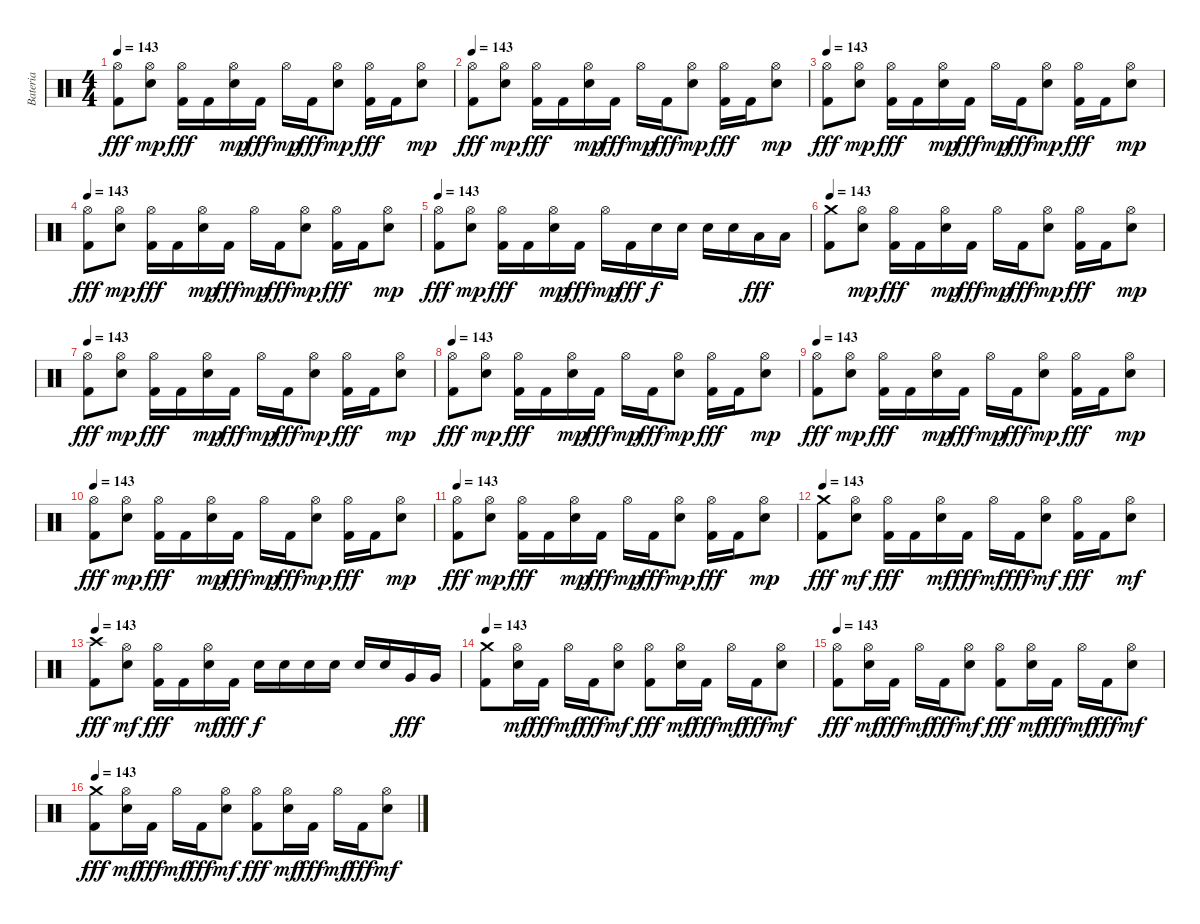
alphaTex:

\track ("Bateria" "Bateria") {instrument percussion}
\staff {score}
\articulation defaults
\ts (4 4)
\tempo 143
\clef neutral
\ks c
("Hi-Hat (open)" "Kick (hit) 2").8{dy fff} ("Hi-Hat (open)" "Electric Snare (hit)").8{dy mp} ("Hi-Hat (open)" "Kick (hit) 2").16{dy fff} "Kick (hit) 2".16 ("Hi-Hat (open)" "Electric Snare (hit)").16{dy mp} "Kick (hit) 2".16{dy fff} "Hi-Hat (open)".16{dy mp} "Kick (hit) 2".16{dy fff} ("Hi-Hat (open)" "Electric Snare (hit)").8{dy mp} ("Hi-Hat (open)" "Kick (hit) 2").16{dy fff} "Kick (hit) 2".16 ("Hi-Hat (open)" "Electric Snare (hit)").8{dy mp} |
\tempo 143
("Hi-Hat (open)" "Kick (hit) 2").8{dy fff} ("Hi-Hat (open)" "Electric Snare (hit)").8{dy mp} ("Hi-Hat (open)" "Kick (hit) 2").16{dy fff} "Kick (hit) 2".16 ("Hi-Hat (open)" "Electric Snare (hit)").16{dy mp} "Kick (hit) 2".16{dy fff} "Hi-Hat (open)".16{dy mp} "Kick (hit) 2".16{dy fff} ("Hi-Hat (open)" "Electric Snare (hit)").8{dy mp} ("Hi-Hat (open)" "Kick (hit) 2").16{dy fff} "Kick (hit) 2".16 ("Hi-Hat (open)" "Electric Snare (hit)").8{dy mp} |
\tempo 143
("Hi-Hat (open)" "Kick (hit) 2").8{dy fff} ("Hi-Hat (open)" "Electric Snare (hit)").8{dy mp} ("Hi-Hat (open)" "Kick (hit) 2").16{dy fff} "Kick (hit) 2".16 ("Hi-Hat (open)" "Electric Snare (hit)").16{dy mp} "Kick (hit) 2".16{dy fff} "Hi-Hat (open)".16{dy mp} "Kick (hit) 2".16{dy fff} ("Hi-Hat (open)" "Electric Snare (hit)").8{dy mp} ("Hi-Hat (open)" "Kick (hit) 2").16{dy fff} "Kick (hit) 2".16 ("Hi-Hat (open)" "Electric Snare (hit)").8{dy mp} |
\tempo 143
("Hi-Hat (open)" "Kick (hit) 2").8{dy fff} ("Hi-Hat (open)" "Electric Snare (hit)").8{dy mp} ("Hi-Hat (open)" "Kick (hit) 2").16{dy fff} "Kick (hit) 2".16 ("Hi-Hat (open)" "Electric Snare (hit)").16{dy mp} "Kick (hit) 2".16{dy fff} "Hi-Hat (open)".16{dy mp} "Kick (hit) 2".16{dy fff} ("Hi-Hat (open)" "Electric Snare (hit)").8{dy mp} ("Hi-Hat (open)" "Kick (hit) 2").16{dy fff} "Kick (hit) 2".16 ("Hi-Hat (open)" "Electric Snare (hit)").8{dy mp} |
\tempo 143
("Hi-Hat (open)" "Kick (hit) 2").8{dy fff} ("Hi-Hat (open)" "Electric Snare (hit)").8{dy mp} ("Hi-Hat (open)" "Kick (hit) 2").16{dy fff} "Kick (hit) 2".16 ("Hi-Hat (open)" "Electric Snare (hit)").16{dy mp} "Kick (hit) 2".16{dy fff} "Hi-Hat (open)".16{dy mp} "Kick (hit) 2".16{dy fff} "Electric Snare (hit)".16{dy f} "Electric Snare (hit)".16 "Electric Snare (hit)".16 "Electric Snare (hit)".16 "Low Tom (hit)".16{dy fff} "Low Tom (hit)".16 |
\tempo 143
("Crash medium (hit)" "Kick (hit) 2").8 ("Hi-Hat (open)" "Electric Snare (hit)").8{dy mp} ("Hi-Hat (open)" "Kick (hit) 2").16{dy fff} "Kick (hit) 2".16 ("Hi-Hat (open)" "Electric Snare (hit)").16{dy mp} "Kick (hit) 2".16{dy fff} "Hi-Hat (open)".16{dy mp} "Kick (hit) 2".16{dy fff} ("Hi-Hat (open)" "Electric Snare (hit)").8{dy mp} ("Hi-Hat (open)" "Kick (hit) 2").16{dy fff} "Kick (hit) 2".16 ("Hi-Hat (open)" "Electric Snare (hit)").8{dy mp} |
\tempo 143
("Hi-Hat (open)" "Kick (hit) 2").8{dy fff} ("Hi-Hat (open)" "Electric Snare (hit)").8{dy mp} ("Hi-Hat (open)" "Kick (hit) 2").16{dy fff} "Kick (hit) 2".16 ("Hi-Hat (open)" "Electric Snare (hit)").16{dy mp} "Kick (hit) 2".16{dy fff} "Hi-Hat (open)".16{dy mp} "Kick (hit) 2".16{dy fff} ("Hi-Hat (open)" "Electric Snare (hit)").8{dy mp} ("Hi-Hat (open)" "Kick (hit) 2").16{dy fff} "Kick (hit) 2".16 ("Hi-Hat (open)" "Electric Snare (hit)").8{dy mp} |
\tempo 143
("Hi-Hat (open)" "Kick (hit) 2").8{dy fff} ("Hi-Hat (open)" "Electric Snare (hit)").8{dy mp} ("Hi-Hat (open)" "Kick (hit) 2").16{dy fff} "Kick (hit) 2".16 ("Hi-Hat (open)" "Electric Snare (hit)").16{dy mp} "Kick (hit) 2".16{dy fff} "Hi-Hat (open)".16{dy mp} "Kick (hit) 2".16{dy fff} ("Hi-Hat (open)" "Electric Snare (hit)").8{dy mp} ("Hi-Hat (open)" "Kick (hit) 2").16{dy fff} "Kick (hit) 2".16 ("Hi-Hat (open)" "Electric Snare (hit)").8{dy mp} |
\tempo 143
("Hi-Hat (open)" "Kick (hit) 2").8{dy fff} ("Hi-Hat (open)" "Electric Snare (hit)").8{dy mp} ("Hi-Hat (open)" "Kick (hit) 2").16{dy fff} "Kick (hit) 2".16 ("Hi-Hat (open)" "Electric Snare (hit)").16{dy mp} "Kick (hit) 2".16{dy fff} "Hi-Hat (open)".16{dy mp} "Kick (hit) 2".16{dy fff} ("Hi-Hat (open)" "Electric Snare (hit)").8{dy mp} ("Hi-Hat (open)" "Kick (hit) 2").16{dy fff} "Kick (hit) 2".16 ("Hi-Hat (open)" "Electric Snare (hit)").8{dy mp} |
\tempo 143
("Hi-Hat (open)" "Kick (hit) 2").8{dy fff} ("Hi-Hat (open)" "Electric Snare (hit)").8{dy mp} ("Hi-Hat (open)" "Kick (hit) 2").16{dy fff} "Kick (hit) 2".16 ("Hi-Hat (open)" "Electric Snare (hit)").16{dy mp} "Kick (hit) 2".16{dy fff} "Hi-Hat (open)".16{dy mp} "Kick (hit) 2".16{dy fff} ("Hi-Hat (open)" "Electric Snare (hit)").8{dy mp} ("Hi-Hat (open)" "Kick (hit) 2").16{dy fff} "Kick (hit) 2".16 ("Hi-Hat (open)" "Electric Snare (hit)").8{dy mp} |
\tempo 143
("Hi-Hat (open)" "Kick (hit) 2").8{dy fff} ("Hi-Hat (open)" "Electric Snare (hit)").8{dy mp} ("Hi-Hat (open)" "Kick (hit) 2").16{dy fff} "Kick (hit) 2".16 ("Hi-Hat (open)" "Electric Snare (hit)").16{dy mp} "Kick (hit) 2".16{dy fff} "Hi-Hat (open)".16{dy mp} "Kick (hit) 2".16{dy fff} ("Hi-Hat (open)" "Electric Snare (hit)").8{dy mp} ("Hi-Hat (open)" "Kick (hit) 2").16{dy fff} "Kick (hit) 2".16 ("Hi-Hat (open)" "Electric Snare (hit)").8{dy mp} |
\tempo 143
("Crash medium (hit)" "Kick (hit) 2").8{dy fff} ("Hi-Hat (open)" "Electric Snare (hit)").8{dy mf} ("Hi-Hat (open)" "Kick (hit) 2").16{dy fff} "Kick (hit) 2".16 ("Hi-Hat (open)" "Electric Snare (hit)").16{dy mf} "Kick (hit) 2".16{dy fff} "Hi-Hat (open)".16{dy mf} "Kick (hit) 2".16{dy fff} ("Hi-Hat (open)" "Electric Snare (hit)").8{dy mf} ("Hi-Hat (open)" "Kick (hit) 2").16{dy fff} "Kick (hit) 2".16 ("Hi-Hat (open)" "Electric Snare (hit)").8{dy mf} |
\tempo 143
("Crash high (hit)" "Kick (hit) 2").8{dy fff} ("Hi-Hat (open)" "Electric Snare (hit)").8{dy mf} ("Hi-Hat (open)" "Kick (hit) 2").16{dy fff} "Kick (hit) 2".16 ("Hi-Hat (open)" "Electric Snare (hit)").16{dy mf} "Kick (hit) 2".16{dy fff} "Electric Snare (hit)".16{dy f} "Electric Snare (hit)".16 "Electric Snare (hit)".16 "Electric Snare (hit)".16 "Electric Snare (hit)".16 "Electric Snare (hit)".16 "Very Low Tom (hit)".16{dy fff} "Very Low Tom (hit)".16 |
\tempo 143
("Crash medium (hit)" "Kick (hit) 2").8 ("Hi-Hat (open)" "Electric Snare (hit)").16{dy mf} "Kick (hit) 2".16{dy fff} "Hi-Hat (open)".16{dy mf} "Kick (hit) 2".16{dy fff} ("Hi-Hat (open)" "Electric Snare (hit)").8{dy mf} ("Hi-Hat (open)" "Kick (hit) 2").8{dy fff} ("Hi-Hat (open)" "Electric Snare (hit)").16{dy mf} "Kick (hit) 2".16{dy fff} "Hi-Hat (open)".16{dy mf} "Kick (hit) 2".16{dy fff} ("Hi-Hat (open)" "Electric Snare (hit)").8{dy mf} |
\tempo 143
("Hi-Hat (open)" "Kick (hit) 2").8{dy fff} ("Hi-Hat (open)" "Electric Snare (hit)").16{dy mf} "Kick (hit) 2".16{dy fff} "Hi-Hat (open)".16{dy mf} "Kick (hit) 2".16{dy fff} ("Hi-Hat (open)" "Electric Snare (hit)").8{dy mf} ("Hi-Hat (open)" "Kick (hit) 2").8{dy fff} ("Hi-Hat (open)" "Electric Snare (hit)").16{dy mf} "Kick (hit) 2".16{dy fff} "Hi-Hat (open)".16{dy mf} "Kick (hit) 2".16{dy fff} ("Hi-Hat (open)" "Electric Snare (hit)").8{dy mf} |
\tempo 143
("Crash medium (hit)" "Kick (hit) 2").8{dy fff} ("Hi-Hat (open)" "Electric Snare (hit)").16{dy mf} "Kick (hit) 2".16{dy fff} "Hi-Hat (open)".16{dy mf} "Kick (hit) 2".16{dy fff} ("Hi-Hat (open)" "Electric Snare (hit)").8{dy mf} ("Hi-Hat (open)" "Kick (hit) 2").8{dy fff} ("Hi-Hat (open)" "Electric Snare (hit)").16{dy mf} "Kick (hit) 2".16{dy fff} "Hi-Hat (open)".16{dy mf} "Kick (hit) 2".16{dy fff} ("Hi-Hat (open)" "Electric Snare (hit)").8{dy mf}
